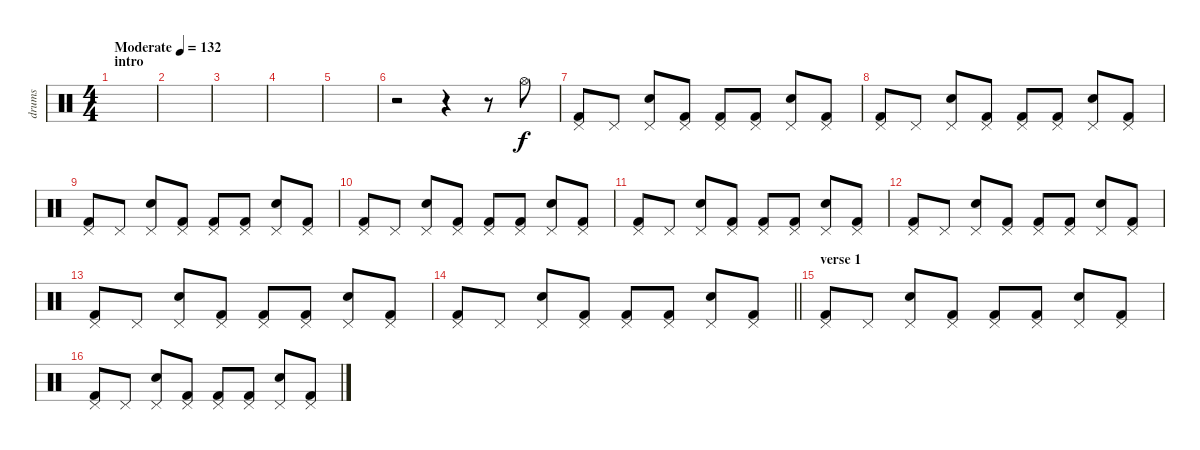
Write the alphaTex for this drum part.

\track ("drums" "drums") {instrument percussion}
\staff {score}
\articulation defaults
\ts (4 4)
\section ("" "intro")
\tempo (132 "Moderate")
\clef neutral
\ks c
|
|
|
|
|
r.2 r.4 r.8 "Hi-Hat (open)".8 |
("Kick (hit) 2" "Pedal Hi-Hat (hit)").8 "Pedal Hi-Hat (hit)".8 ("Electric Snare (hit)" "Pedal Hi-Hat (hit)").8 ("Kick (hit) 2" "Pedal Hi-Hat (hit)").8 ("Kick (hit) 2" "Pedal Hi-Hat (hit)").8 ("Kick (hit) 2" "Pedal Hi-Hat (hit)").8 ("Electric Snare (hit)" "Pedal Hi-Hat (hit)").8 ("Kick (hit) 2" "Pedal Hi-Hat (hit)").8 |
("Kick (hit) 2" "Pedal Hi-Hat (hit)").8 "Pedal Hi-Hat (hit)".8 ("Electric Snare (hit)" "Pedal Hi-Hat (hit)").8 ("Kick (hit) 2" "Pedal Hi-Hat (hit)").8 ("Kick (hit) 2" "Pedal Hi-Hat (hit)").8 ("Kick (hit) 2" "Pedal Hi-Hat (hit)").8 ("Electric Snare (hit)" "Pedal Hi-Hat (hit)").8 ("Kick (hit) 2" "Pedal Hi-Hat (hit)").8 |
("Kick (hit) 2" "Pedal Hi-Hat (hit)").8 "Pedal Hi-Hat (hit)".8 ("Electric Snare (hit)" "Pedal Hi-Hat (hit)").8 ("Kick (hit) 2" "Pedal Hi-Hat (hit)").8 ("Kick (hit) 2" "Pedal Hi-Hat (hit)").8 ("Kick (hit) 2" "Pedal Hi-Hat (hit)").8 ("Electric Snare (hit)" "Pedal Hi-Hat (hit)").8 ("Kick (hit) 2" "Pedal Hi-Hat (hit)").8 |
("Kick (hit) 2" "Pedal Hi-Hat (hit)").8 "Pedal Hi-Hat (hit)".8 ("Electric Snare (hit)" "Pedal Hi-Hat (hit)").8 ("Kick (hit) 2" "Pedal Hi-Hat (hit)").8 ("Kick (hit) 2" "Pedal Hi-Hat (hit)").8 ("Kick (hit) 2" "Pedal Hi-Hat (hit)").8 ("Electric Snare (hit)" "Pedal Hi-Hat (hit)").8 ("Kick (hit) 2" "Pedal Hi-Hat (hit)").8 |
("Kick (hit) 2" "Pedal Hi-Hat (hit)").8 "Pedal Hi-Hat (hit)".8 ("Electric Snare (hit)" "Pedal Hi-Hat (hit)").8 ("Kick (hit) 2" "Pedal Hi-Hat (hit)").8 ("Kick (hit) 2" "Pedal Hi-Hat (hit)").8 ("Kick (hit) 2" "Pedal Hi-Hat (hit)").8 ("Electric Snare (hit)" "Pedal Hi-Hat (hit)").8 ("Kick (hit) 2" "Pedal Hi-Hat (hit)").8 |
("Kick (hit) 2" "Pedal Hi-Hat (hit)").8 "Pedal Hi-Hat (hit)".8 ("Electric Snare (hit)" "Pedal Hi-Hat (hit)").8 ("Kick (hit) 2" "Pedal Hi-Hat (hit)").8 ("Kick (hit) 2" "Pedal Hi-Hat (hit)").8 ("Kick (hit) 2" "Pedal Hi-Hat (hit)").8 ("Electric Snare (hit)" "Pedal Hi-Hat (hit)").8 ("Kick (hit) 2" "Pedal Hi-Hat (hit)").8 |
("Kick (hit) 2" "Pedal Hi-Hat (hit)").8 "Pedal Hi-Hat (hit)".8 ("Electric Snare (hit)" "Pedal Hi-Hat (hit)").8 ("Kick (hit) 2" "Pedal Hi-Hat (hit)").8 ("Kick (hit) 2" "Pedal Hi-Hat (hit)").8 ("Kick (hit) 2" "Pedal Hi-Hat (hit)").8 ("Electric Snare (hit)" "Pedal Hi-Hat (hit)").8 ("Kick (hit) 2" "Pedal Hi-Hat (hit)").8 |
\barLineRight lightlight
("Kick (hit) 2" "Pedal Hi-Hat (hit)").8 "Pedal Hi-Hat (hit)".8 ("Electric Snare (hit)" "Pedal Hi-Hat (hit)").8 ("Kick (hit) 2" "Pedal Hi-Hat (hit)").8 ("Kick (hit) 2" "Pedal Hi-Hat (hit)").8 ("Kick (hit) 2" "Pedal Hi-Hat (hit)").8 ("Electric Snare (hit)" "Pedal Hi-Hat (hit)").8 ("Kick (hit) 2" "Pedal Hi-Hat (hit)").8 |
\section ("" "verse 1")
("Kick (hit) 2" "Pedal Hi-Hat (hit)").8 "Pedal Hi-Hat (hit)".8 ("Electric Snare (hit)" "Pedal Hi-Hat (hit)").8 ("Kick (hit) 2" "Pedal Hi-Hat (hit)").8 ("Kick (hit) 2" "Pedal Hi-Hat (hit)").8 ("Kick (hit) 2" "Pedal Hi-Hat (hit)").8 ("Electric Snare (hit)" "Pedal Hi-Hat (hit)").8 ("Kick (hit) 2" "Pedal Hi-Hat (hit)").8 |
("Kick (hit) 2" "Pedal Hi-Hat (hit)").8 "Pedal Hi-Hat (hit)".8 ("Electric Snare (hit)" "Pedal Hi-Hat (hit)").8 ("Kick (hit) 2" "Pedal Hi-Hat (hit)").8 ("Kick (hit) 2" "Pedal Hi-Hat (hit)").8 ("Kick (hit) 2" "Pedal Hi-Hat (hit)").8 ("Electric Snare (hit)" "Pedal Hi-Hat (hit)").8 ("Kick (hit) 2" "Pedal Hi-Hat (hit)").8
